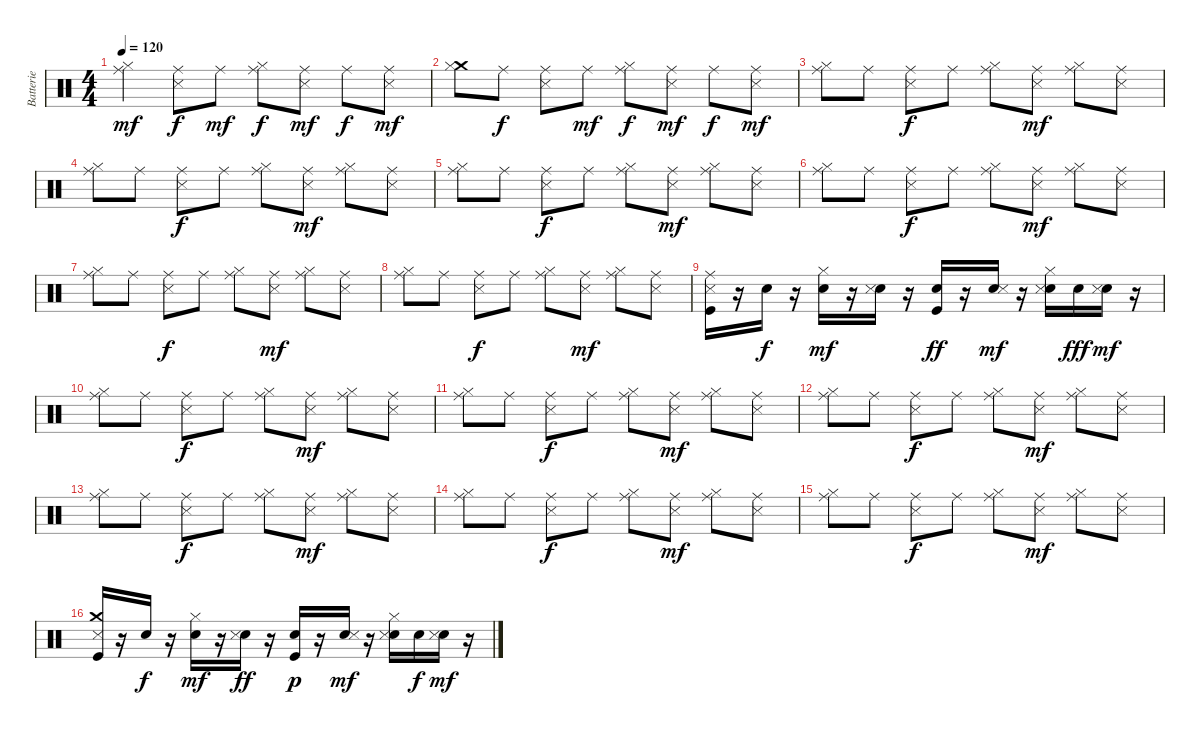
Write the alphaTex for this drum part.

\track ("Batterie" "Batterie") {instrument percussion}
\staff {score}
\articulation defaults
\ts (4 4)
\tempo 120
\clef neutral
\ks c
("Ride (middle)" "Hi-Hat (closed)").4{dy mf} ("Ride (middle)" "Snare (side stick) 3").8{dy f} "Ride (middle)".8{dy mf} ("Ride (middle)" "Hi-Hat (closed)").8{dy f} ("Ride (middle)" "Snare (side stick) 3").8{dy mf} "Ride (middle)".8{dy f} ("Ride (middle)" "Snare (side stick) 3").8{dy mf} |
("Crash medium (hit)" "Hi-Hat (closed)").8 "Ride (middle)".8{dy f} ("Ride (middle)" "Snare (side stick) 3").8 "Ride (middle)".8{dy mf} ("Ride (middle)" "Hi-Hat (closed)").8{dy f} ("Ride (middle)" "Snare (side stick) 3").8{dy mf} "Ride (middle)".8{dy f} ("Ride (middle)" "Snare (side stick) 3").8{dy mf} |
("Ride (middle)" "Hi-Hat (closed)").8 "Ride (middle)".8 ("Ride (middle)" "Snare (side stick) 3").8{dy f} "Ride (middle)".8 ("Ride (middle)" "Hi-Hat (closed)").8 ("Ride (middle)" "Snare (side stick) 3").8{dy mf} ("Ride (middle)" "Hi-Hat (closed)").8 ("Ride (middle)" "Snare (side stick) 3").8 |
("Ride (middle)" "Hi-Hat (closed)").8 "Ride (middle)".8 ("Ride (middle)" "Snare (side stick) 3").8{dy f} "Ride (middle)".8 ("Ride (middle)" "Hi-Hat (closed)").8 ("Ride (middle)" "Snare (side stick) 3").8{dy mf} ("Ride (middle)" "Hi-Hat (closed)").8 ("Ride (middle)" "Snare (side stick) 3").8 |
("Ride (middle)" "Hi-Hat (closed)").8 "Ride (middle)".8 ("Ride (middle)" "Snare (side stick) 3").8{dy f} "Ride (middle)".8 ("Ride (middle)" "Hi-Hat (closed)").8 ("Ride (middle)" "Snare (side stick) 3").8{dy mf} ("Ride (middle)" "Hi-Hat (closed)").8 ("Ride (middle)" "Snare (side stick) 3").8 |
("Ride (middle)" "Hi-Hat (closed)").8 "Ride (middle)".8 ("Ride (middle)" "Snare (side stick) 3").8{dy f} "Ride (middle)".8 ("Ride (middle)" "Hi-Hat (closed)").8 ("Ride (middle)" "Snare (side stick) 3").8{dy mf} ("Ride (middle)" "Hi-Hat (closed)").8 ("Ride (middle)" "Snare (side stick) 3").8 |
("Ride (middle)" "Hi-Hat (closed)").8 "Ride (middle)".8 ("Ride (middle)" "Snare (side stick) 3").8{dy f} "Ride (middle)".8 ("Ride (middle)" "Hi-Hat (closed)").8 ("Ride (middle)" "Snare (side stick) 3").8{dy mf} ("Ride (middle)" "Hi-Hat (closed)").8 ("Ride (middle)" "Snare (side stick) 3").8 |
("Ride (middle)" "Hi-Hat (closed)").8 "Ride (middle)".8 ("Ride (middle)" "Snare (side stick) 3").8{dy f} "Ride (middle)".8 ("Ride (middle)" "Hi-Hat (closed)").8 ("Ride (middle)" "Snare (side stick) 3").8{dy mf} ("Ride (middle)" "Hi-Hat (closed)").8 ("Ride (middle)" "Snare (side stick) 3").8 |
("Kick (hit)" "Ride (middle)" "Snare (side stick) 3").16 r.16 "Snare (hit) 2".16{dy f} r.16 ("Hi-Hat (closed)" "Snare (hit) 2").16{dy mf} r.16 ("Snare (hit) 2" "Snare (side stick) 3").16 r.16 ("Kick (hit)" "Snare (hit) 2").16{dy ff} r.16 ("Snare (hit) 2" "Snare (side stick) 3").16{dy mf} r.16 ("Hi-Hat (closed)" "Snare (hit) 2" "Snare (side stick) 3").16 "Snare (hit) 2".16{dy fff} ("Snare (hit) 2" "Snare (side stick) 3").16{dy mf} r.16 |
("Ride (middle)" "Hi-Hat (closed)").8 "Ride (middle)".8 ("Ride (middle)" "Snare (side stick) 3").8{dy f} "Ride (middle)".8 ("Ride (middle)" "Hi-Hat (closed)").8 ("Ride (middle)" "Snare (side stick) 3").8{dy mf} ("Ride (middle)" "Hi-Hat (closed)").8 ("Ride (middle)" "Snare (side stick) 3").8 |
("Ride (middle)" "Hi-Hat (closed)").8 "Ride (middle)".8 ("Ride (middle)" "Snare (side stick) 3").8{dy f} "Ride (middle)".8 ("Ride (middle)" "Hi-Hat (closed)").8 ("Ride (middle)" "Snare (side stick) 3").8{dy mf} ("Ride (middle)" "Hi-Hat (closed)").8 ("Ride (middle)" "Snare (side stick) 3").8 |
("Ride (middle)" "Hi-Hat (closed)").8 "Ride (middle)".8 ("Ride (middle)" "Snare (side stick) 3").8{dy f} "Ride (middle)".8 ("Ride (middle)" "Hi-Hat (closed)").8 ("Ride (middle)" "Snare (side stick) 3").8{dy mf} ("Ride (middle)" "Hi-Hat (closed)").8 ("Ride (middle)" "Snare (side stick) 3").8 |
("Ride (middle)" "Hi-Hat (closed)").8 "Ride (middle)".8 ("Ride (middle)" "Snare (side stick) 3").8{dy f} "Ride (middle)".8 ("Ride (middle)" "Hi-Hat (closed)").8 ("Ride (middle)" "Snare (side stick) 3").8{dy mf} ("Ride (middle)" "Hi-Hat (closed)").8 ("Ride (middle)" "Snare (side stick) 3").8 |
("Ride (middle)" "Hi-Hat (closed)").8 "Ride (middle)".8 ("Ride (middle)" "Snare (side stick) 3").8{dy f} "Ride (middle)".8 ("Ride (middle)" "Hi-Hat (closed)").8 ("Ride (middle)" "Snare (side stick) 3").8{dy mf} ("Ride (middle)" "Hi-Hat (closed)").8 ("Ride (middle)" "Snare (side stick) 3").8 |
("Ride (middle)" "Hi-Hat (closed)").8 "Ride (middle)".8 ("Ride (middle)" "Snare (side stick) 3").8{dy f} "Ride (middle)".8 ("Ride (middle)" "Hi-Hat (closed)").8 ("Ride (middle)" "Snare (side stick) 3").8{dy mf} ("Ride (middle)" "Hi-Hat (closed)").8 ("Ride (middle)" "Snare (side stick) 3").8 |
("Kick (hit)" "Crash medium (hit)" "Snare (side stick) 3").16 r.16 "Snare (hit) 2".16{dy f} r.16 ("Hi-Hat (closed)" "Snare (hit) 2").16{dy mf} r.16 ("Snare (hit) 2" "Snare (side stick) 3").16{dy ff} r.16 ("Kick (hit)" "Snare (hit) 2").16{dy p} r.16 ("Snare (hit) 2" "Snare (side stick) 3").16{dy mf} r.16 ("Hi-Hat (closed)" "Snare (hit) 2" "Snare (side stick) 3").16 "Snare (hit) 2".16{dy f} ("Snare (hit) 2" "Snare (side stick) 3").16{dy mf} r.16
